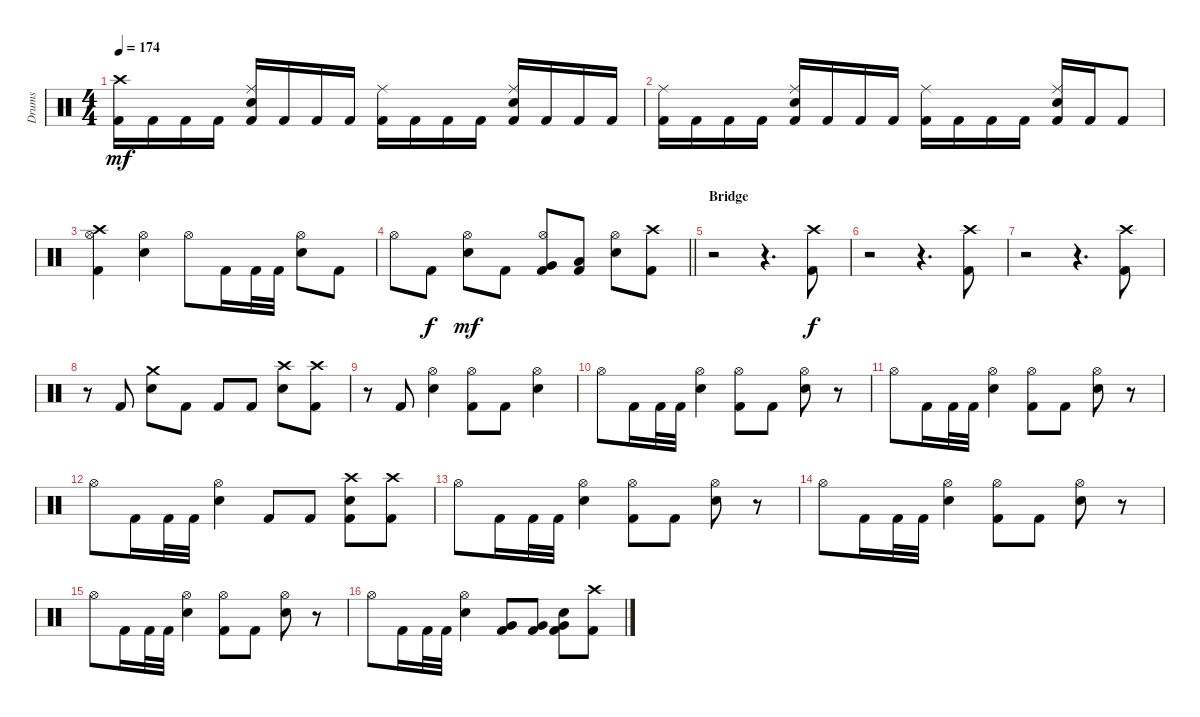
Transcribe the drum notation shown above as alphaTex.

\track ("Drums" "Drums") {instrument percussion}
\staff {score}
\articulation defaults
\ts (4 4)
\tempo 174
\clef neutral
\ks c
("Crash high (hit)" "Kick (hit) 2").16{dy mf} "Kick (hit) 2".16 "Kick (hit) 2".16 "Kick (hit) 2".16 ("Ride (middle)" "Snare (hit) 2" "Kick (hit) 2").16 "Kick (hit) 2".16 "Kick (hit) 2".16 "Kick (hit) 2".16 ("Ride (middle)" "Kick (hit) 2").16 "Kick (hit) 2".16 "Kick (hit) 2".16 "Kick (hit) 2".16 ("Ride (middle)" "Snare (hit) 2" "Kick (hit) 2").16 "Kick (hit) 2".16 "Kick (hit) 2".16 "Kick (hit) 2".16 |
("Ride (middle)" "Kick (hit) 2").16 "Kick (hit) 2".16 "Kick (hit) 2".16 "Kick (hit) 2".16 ("Ride (middle)" "Snare (hit) 2" "Kick (hit) 2").16 "Kick (hit) 2".16 "Kick (hit) 2".16 "Kick (hit) 2".16 ("Ride (middle)" "Kick (hit) 2").16 "Kick (hit) 2".16 "Kick (hit) 2".16 "Kick (hit) 2".16 ("Ride (middle)" "Snare (hit) 2" "Kick (hit) 2").16 "Kick (hit) 2".16 "Kick (hit) 2".8 |
("Crash high (hit)" "Hi-Hat (open)" "Kick (hit) 2").4 ("Hi-Hat (open)" "Snare (hit) 2").4 "Hi-Hat (open)".8 "Kick (hit) 2".16 "Kick (hit) 2".32 "Kick (hit) 2".32 ("Hi-Hat (open)" "Snare (hit) 2").8 "Kick (hit) 2".8 |
\barLineRight lightlight "Hi-Hat (open)".8 "Kick (hit) 2".8{dy f}
("Hi-Hat (open)" "Snare (hit) 2").8{dy mf} "Kick (hit) 2".8 ("Very Low Tom (hit)" "Hi-Hat (open)" "Kick (hit) 2").8 ("Low Floor Tom (hit)" "Kick (hit) 2").8 ("Hi-Hat (open)" "Snare (hit) 2").8 ("Crash high (hit)" "Kick (hit) 2").8 |
\section ("" "Bridge")
r.2 r.4{d} ("Crash high (hit)" "Kick (hit) 2").8{dy f} |
r.2 r.4{d} ("Crash high (hit)" "Kick (hit) 2").8 |
r.2 r.4{d} ("Crash high (hit)" "Kick (hit) 2").8 |
r.8 "Kick (hit) 2".8 ("Crash medium (hit)" "Snare (hit) 2").8 "Kick (hit) 2".8 "Kick (hit) 2".8 "Kick (hit) 2".8 ("Crash high (hit)" "Snare (hit) 2").8 ("Crash high (hit)" "Kick (hit) 2").8 |
r.8 "Kick (hit) 2".8 ("Hi-Hat (open)" "Snare (hit) 2").4 ("Hi-Hat (open)" "Kick (hit) 2").8 "Kick (hit) 2".8 ("Hi-Hat (open)" "Snare (hit) 2").4 |
"Hi-Hat (open)".8 "Kick (hit) 2".16 "Kick (hit) 2".32 "Kick (hit) 2".32 ("Hi-Hat (open)" "Snare (hit) 2").4 ("Hi-Hat (open)" "Kick (hit) 2").8 "Kick (hit) 2".8 ("Hi-Hat (open)" "Snare (hit) 2").8 r.8 |
"Hi-Hat (open)".8 "Kick (hit) 2".16 "Kick (hit) 2".32 "Kick (hit) 2".32 ("Hi-Hat (open)" "Snare (hit) 2").4 ("Hi-Hat (open)" "Kick (hit) 2").8 "Kick (hit) 2".8 ("Hi-Hat (open)" "Snare (hit) 2").8 r.8 |
"Hi-Hat (open)".8 "Kick (hit) 2".16 "Kick (hit) 2".32 "Kick (hit) 2".32 ("Hi-Hat (open)" "Snare (hit) 2").4 "Kick (hit) 2".8 "Kick (hit) 2".8 ("Crash high (hit)" "Snare (hit) 2" "Kick (hit) 2").8 ("Crash high (hit)" "Kick (hit) 2").8 |
"Hi-Hat (open)".8 "Kick (hit) 2".16 "Kick (hit) 2".32 "Kick (hit) 2".32 ("Hi-Hat (open)" "Snare (hit) 2").4 ("Hi-Hat (open)" "Kick (hit) 2").8 "Kick (hit) 2".8 ("Hi-Hat (open)" "Snare (hit) 2").8 r.8 |
"Hi-Hat (open)".8 "Kick (hit) 2".16 "Kick (hit) 2".32 "Kick (hit) 2".32 ("Hi-Hat (open)" "Snare (hit) 2").4 ("Hi-Hat (open)" "Kick (hit) 2").8 "Kick (hit) 2".8 ("Hi-Hat (open)" "Snare (hit) 2").8 r.8 |
"Hi-Hat (open)".8 "Kick (hit) 2".16 "Kick (hit) 2".32 "Kick (hit) 2".32 ("Hi-Hat (open)" "Snare (hit) 2").4 ("Hi-Hat (open)" "Kick (hit) 2").8 "Kick (hit) 2".8 ("Hi-Hat (open)" "Snare (hit) 2").8 r.8 |
"Hi-Hat (open)".8 "Kick (hit) 2".16 "Kick (hit) 2".32 "Kick (hit) 2".32 ("Hi-Hat (open)" "Snare (hit) 2").4 ("Very Low Tom (hit)" "Kick (hit) 2").8 ("Very Low Tom (hit)" "Kick (hit) 2").8 ("Very Low Tom (hit)" "Snare (hit) 2" "Kick (hit) 2").8 ("Crash high (hit)" "Kick (hit) 2").8
